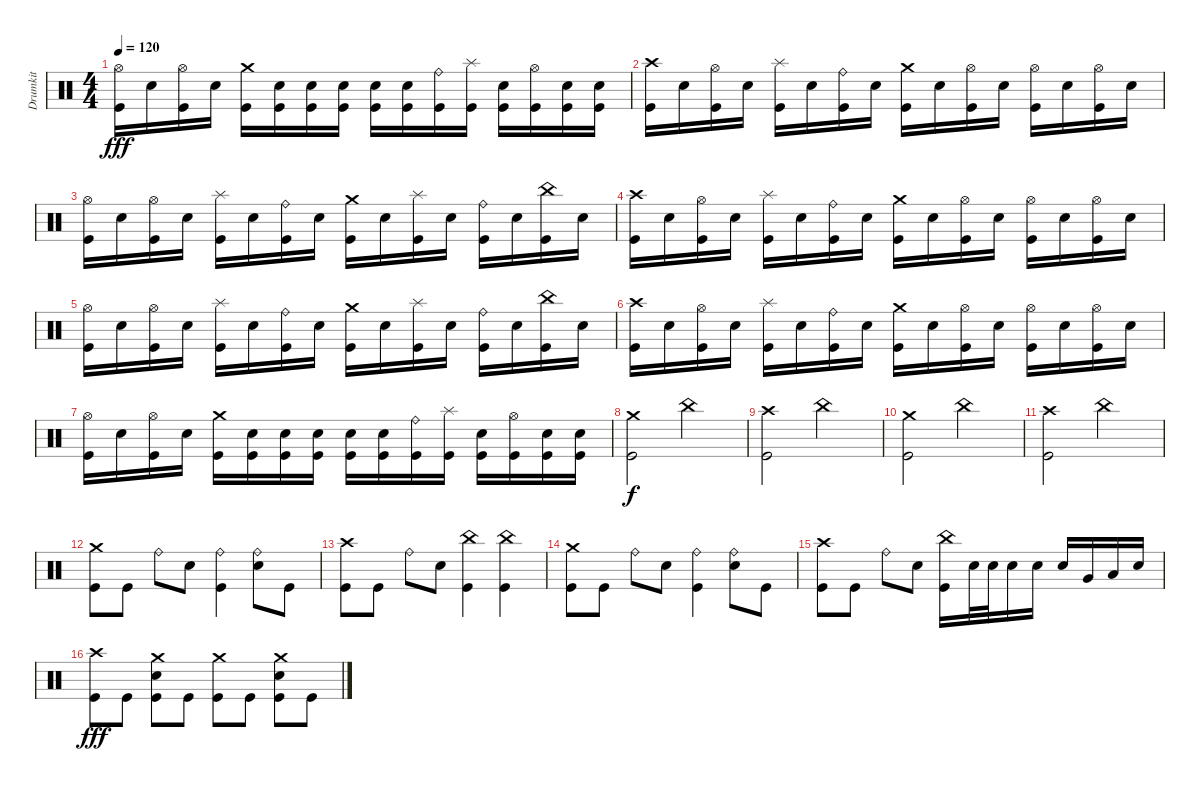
\track ("Drumkit" "Drumkit") {instrument percussion}
\staff {score}
\articulation defaults
\ts (4 4)
\tempo 120
\clef neutral
\ks c
("Hi-Hat (open)" "Kick (hit)").16{dy fff} "Snare (hit) 2".16 ("Hi-Hat (open)" "Kick (hit)").16 "Snare (hit) 2".16 ("Crash medium (hit)" "Kick (hit)").16 ("Snare (hit) 2" "Kick (hit)").16 ("Snare (hit) 2" "Kick (hit)").16 ("Snare (hit) 2" "Kick (hit)").16 ("Snare (hit) 2" "Kick (hit)").16 ("Snare (hit) 2" "Kick (hit)").16 ("Ride (bell)" "Kick (hit)").16 ("Splash (hit)" "Kick (hit)").16 ("Snare (hit) 2" "Kick (hit)").16 ("Hi-Hat (open)" "Kick (hit)").16 ("Snare (hit) 2" "Kick (hit)").16 ("Snare (hit) 2" "Kick (hit)").16 |
("Crash high (hit)" "Kick (hit)").16 "Snare (hit) 2".16 ("Hi-Hat (open)" "Kick (hit)").16 "Snare (hit) 2".16 ("Splash (hit)" "Kick (hit)").16 "Snare (hit) 2".16 ("Ride (bell)" "Kick (hit)").16 "Snare (hit) 2".16 ("Crash medium (hit)" "Kick (hit)").16 "Snare (hit) 2".16 ("Hi-Hat (open)" "Kick (hit)").16 "Snare (hit) 2".16 ("Hi-Hat (open)" "Kick (hit)").16 "Snare (hit) 2".16 ("Hi-Hat (open)" "Kick (hit)").16 "Snare (hit) 2".16 |
("Hi-Hat (open)" "Kick (hit)").16 "Snare (hit) 2".16 ("Hi-Hat (open)" "Kick (hit)").16 "Snare (hit) 2".16 ("Splash (hit)" "Kick (hit)").16 "Snare (hit) 2".16 ("Ride (bell)" "Kick (hit)").16 "Snare (hit) 2".16 ("Crash medium (hit)" "Kick (hit)").16 "Snare (hit) 2".16 ("Splash (hit)" "Kick (hit)").16 "Snare (hit) 2".16 ("Ride (bell)" "Kick (hit)").16 "Snare (hit) 2".16 ("China (hit)" "Kick (hit)").16 "Snare (hit) 2".16 |
("Crash high (hit)" "Kick (hit)").16 "Snare (hit) 2".16 ("Hi-Hat (open)" "Kick (hit)").16 "Snare (hit) 2".16 ("Splash (hit)" "Kick (hit)").16 "Snare (hit) 2".16 ("Ride (bell)" "Kick (hit)").16 "Snare (hit) 2".16 ("Crash medium (hit)" "Kick (hit)").16 "Snare (hit) 2".16 ("Hi-Hat (open)" "Kick (hit)").16 "Snare (hit) 2".16 ("Hi-Hat (open)" "Kick (hit)").16 "Snare (hit) 2".16 ("Hi-Hat (open)" "Kick (hit)").16 "Snare (hit) 2".16 |
("Hi-Hat (open)" "Kick (hit)").16 "Snare (hit) 2".16 ("Hi-Hat (open)" "Kick (hit)").16 "Snare (hit) 2".16 ("Splash (hit)" "Kick (hit)").16 "Snare (hit) 2".16 ("Ride (bell)" "Kick (hit)").16 "Snare (hit) 2".16 ("Crash medium (hit)" "Kick (hit)").16 "Snare (hit) 2".16 ("Splash (hit)" "Kick (hit)").16 "Snare (hit) 2".16 ("Ride (bell)" "Kick (hit)").16 "Snare (hit) 2".16 ("China (hit)" "Kick (hit)").16 "Snare (hit) 2".16 |
("Crash high (hit)" "Kick (hit)").16 "Snare (hit) 2".16 ("Hi-Hat (open)" "Kick (hit)").16 "Snare (hit) 2".16 ("Splash (hit)" "Kick (hit)").16 "Snare (hit) 2".16 ("Ride (bell)" "Kick (hit)").16 "Snare (hit) 2".16 ("Crash medium (hit)" "Kick (hit)").16 "Snare (hit) 2".16 ("Hi-Hat (open)" "Kick (hit)").16 "Snare (hit) 2".16 ("Hi-Hat (open)" "Kick (hit)").16 "Snare (hit) 2".16 ("Hi-Hat (open)" "Kick (hit)").16 "Snare (hit) 2".16 |
("Hi-Hat (open)" "Kick (hit)").16 "Snare (hit) 2".16 ("Hi-Hat (open)" "Kick (hit)").16 "Snare (hit) 2".16 ("Crash medium (hit)" "Kick (hit)").16 ("Snare (hit) 2" "Kick (hit)").16 ("Snare (hit) 2" "Kick (hit)").16 ("Snare (hit) 2" "Kick (hit)").16 ("Snare (hit) 2" "Kick (hit)").16 ("Snare (hit) 2" "Kick (hit)").16 ("Ride (bell)" "Kick (hit)").16 ("Splash (hit)" "Kick (hit)").16 ("Snare (hit) 2" "Kick (hit)").16 ("Hi-Hat (open)" "Kick (hit)").16 ("Snare (hit) 2" "Kick (hit)").16 ("Snare (hit) 2" "Kick (hit)").16 |
("Crash medium (hit)" "Kick (hit)").2{dy f} "China (hit)".2 |
("Crash high (hit)" "Kick (hit)").2 "China (hit)".2 |
("Crash medium (hit)" "Kick (hit)").2 "China (hit)".2 |
("Crash high (hit)" "Kick (hit)").2 "China (hit)".2 |
("Crash medium (hit)" "Kick (hit)").8 "Kick (hit)".8 "Ride (bell)".8 "Snare (hit) 2".8 ("Ride (bell)" "Kick (hit)").4 ("Ride (bell)" "Snare (hit) 2").8 "Kick (hit)".8 |
("Crash high (hit)" "Kick (hit)").8 "Kick (hit)".8 "Ride (bell)".8 "Snare (hit) 2".8 ("China (hit)" "Kick (hit)").4 ("China (hit)" "Kick (hit)").4 |
("Crash medium (hit)" "Kick (hit)").8 "Kick (hit)".8 "Ride (bell)".8 "Snare (hit) 2".8 ("Ride (bell)" "Kick (hit)").4 ("Ride (bell)" "Snare (hit) 2").8 "Kick (hit)".8 |
("Crash high (hit)" "Kick (hit)").8 "Kick (hit)".8 "Ride (bell)".8 "Snare (hit) 2".8 ("China (hit)" "Kick (hit)").16 "Snare (hit) 2".32 "Snare (hit) 2".32 "Snare (hit) 2".16 "Snare (hit) 2".16 "Snare (hit) 2".16 "Very Low Tom (hit)".16 "Low Tom (hit)".16 "Snare (hit) 2".16 |
("Crash high (hit)" "Kick (hit)").8{dy fff} "Kick (hit)".8 ("Crash medium (hit)" "Snare (hit) 2" "Kick (hit)").8 "Kick (hit)".8 ("Crash medium (hit)" "Kick (hit)").8 "Kick (hit)".8 ("Crash medium (hit)" "Snare (hit) 2" "Kick (hit)").8 "Kick (hit)".8
